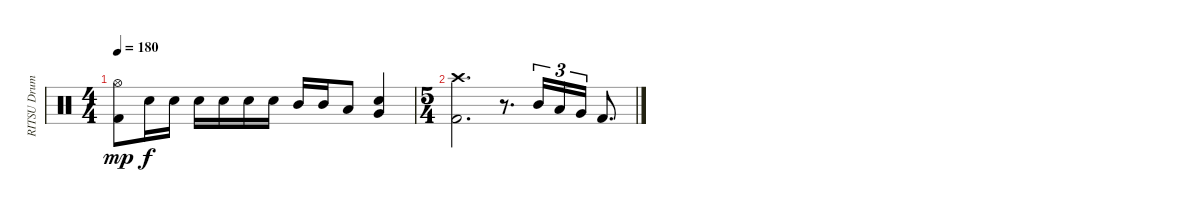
\track ("RITSU Drums" "RITSU Drum") {instrument percussion}
\staff {score}
\articulation defaults
\ts (4 4)
\tempo 180
\clef neutral
\ks c
("Hi-Hat (open)" "Kick (hit) 2").8{dy mp} "Snare (hit) 2".16{dy f} "Snare (hit) 2".16 "Snare (hit) 2".16 "Snare (hit) 2".16 "Snare (hit) 2".16 "Snare (hit) 2".16 "Mid Tom (hit)".16 "Mid Tom (hit)".16 "Low Tom (hit)".8 ("Snare (hit) 2" "Very Low Tom (hit)").4 |
\ts (5 4)
("Crash high (hit)" "Kick (hit) 2").2{d} r.8{d} "Mid Tom (hit)".16{tu (3 2)} "Low Tom (hit)".16{tu (3 2)} "Very Low Tom (hit)".16{tu (3 2)} "Kick (hit) 2".8{d}
